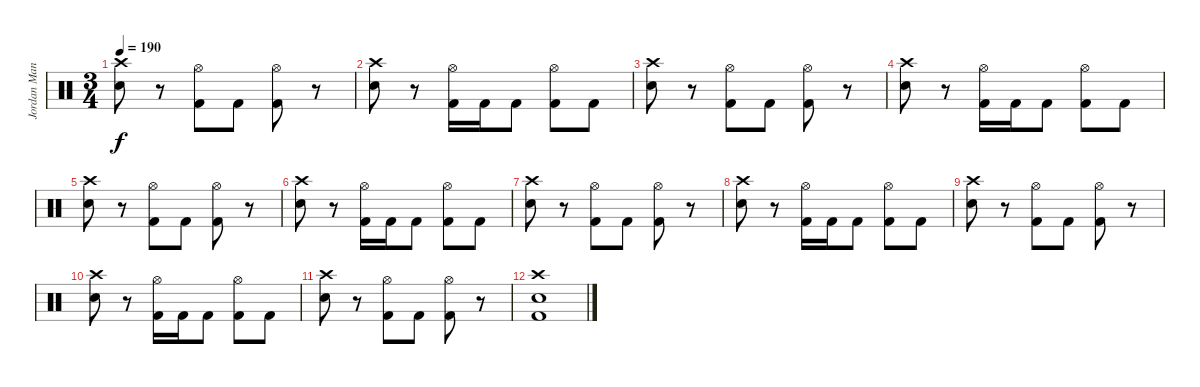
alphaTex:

\track ("Jordan Mancino" "Jordan Man") {instrument percussion}
\staff {score}
\articulation defaults
\ts (3 4)
\tempo 190
\clef neutral
\ks c
("Crash high (hit)" "Electric Snare (hit)").8{dy f} r.8 ("Hi-Hat (open)" "Kick (hit) 2").8 "Kick (hit) 2".8 ("Hi-Hat (open)" "Kick (hit) 2").8 r.8 |
("Crash high (hit)" "Electric Snare (hit)").8 r.8 ("Hi-Hat (open)" "Kick (hit) 2").16 "Kick (hit) 2".16 "Kick (hit) 2".8 ("Hi-Hat (open)" "Kick (hit) 2").8 "Kick (hit) 2".8 |
("Crash high (hit)" "Electric Snare (hit)").8 r.8 ("Hi-Hat (open)" "Kick (hit) 2").8 "Kick (hit) 2".8 ("Hi-Hat (open)" "Kick (hit) 2").8 r.8 |
("Crash high (hit)" "Electric Snare (hit)").8 r.8 ("Hi-Hat (open)" "Kick (hit) 2").16 "Kick (hit) 2".16 "Kick (hit) 2".8 ("Hi-Hat (open)" "Kick (hit) 2").8 "Kick (hit) 2".8 |
("Crash high (hit)" "Electric Snare (hit)").8 r.8 ("Hi-Hat (open)" "Kick (hit) 2").8 "Kick (hit) 2".8 ("Hi-Hat (open)" "Kick (hit) 2").8 r.8 |
("Crash high (hit)" "Electric Snare (hit)").8 r.8 ("Hi-Hat (open)" "Kick (hit) 2").16 "Kick (hit) 2".16 "Kick (hit) 2".8 ("Hi-Hat (open)" "Kick (hit) 2").8 "Kick (hit) 2".8 |
("Crash high (hit)" "Electric Snare (hit)").8 r.8 ("Hi-Hat (open)" "Kick (hit) 2").8 "Kick (hit) 2".8 ("Hi-Hat (open)" "Kick (hit) 2").8 r.8 |
("Crash high (hit)" "Electric Snare (hit)").8 r.8 ("Hi-Hat (open)" "Kick (hit) 2").16 "Kick (hit) 2".16 "Kick (hit) 2".8 ("Hi-Hat (open)" "Kick (hit) 2").8 "Kick (hit) 2".8 |
("Crash high (hit)" "Electric Snare (hit)").8 r.8 ("Hi-Hat (open)" "Kick (hit) 2").8 "Kick (hit) 2".8 ("Hi-Hat (open)" "Kick (hit) 2").8 r.8 |
("Crash high (hit)" "Electric Snare (hit)").8 r.8 ("Hi-Hat (open)" "Kick (hit) 2").16 "Kick (hit) 2".16 "Kick (hit) 2".8 ("Hi-Hat (open)" "Kick (hit) 2").8 "Kick (hit) 2".8 |
("Crash high (hit)" "Electric Snare (hit)").8 r.8 ("Hi-Hat (open)" "Kick (hit) 2").8 "Kick (hit) 2".8 ("Hi-Hat (open)" "Kick (hit) 2").8 r.8 |
("Crash high (hit)" "Electric Snare (hit)" "Kick (hit) 2").1
